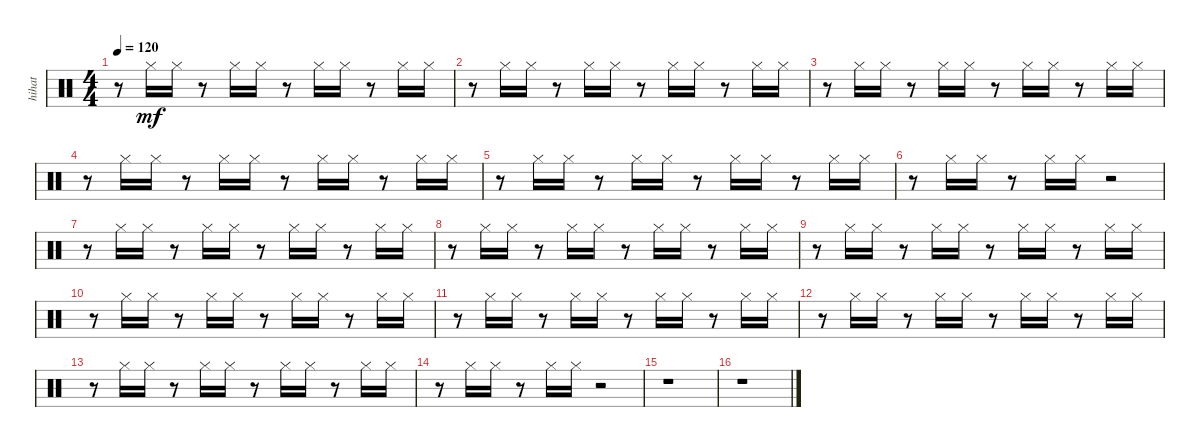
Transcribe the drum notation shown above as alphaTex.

\track ("hihat" "hihat") {instrument percussion}
\staff {score}
\articulation defaults
\ts (4 4)
\tempo 120
\clef neutral
\ks c
r.8{dy mf} "Hi-Hat (closed)".16 "Hi-Hat (closed)".16 r.8 "Hi-Hat (closed)".16 "Hi-Hat (closed)".16 r.8 "Hi-Hat (closed)".16 "Hi-Hat (closed)".16 r.8 "Hi-Hat (closed)".16 "Hi-Hat (closed)".16 |
r.8 "Hi-Hat (closed)".16 "Hi-Hat (closed)".16 r.8 "Hi-Hat (closed)".16 "Hi-Hat (closed)".16 r.8 "Hi-Hat (closed)".16 "Hi-Hat (closed)".16 r.8 "Hi-Hat (closed)".16 "Hi-Hat (closed)".16 |
r.8 "Hi-Hat (closed)".16 "Hi-Hat (closed)".16 r.8 "Hi-Hat (closed)".16 "Hi-Hat (closed)".16 r.8 "Hi-Hat (closed)".16 "Hi-Hat (closed)".16 r.8 "Hi-Hat (closed)".16 "Hi-Hat (closed)".16 |
r.8 "Hi-Hat (closed)".16 "Hi-Hat (closed)".16 r.8 "Hi-Hat (closed)".16 "Hi-Hat (closed)".16 r.8 "Hi-Hat (closed)".16 "Hi-Hat (closed)".16 r.8 "Hi-Hat (closed)".16 "Hi-Hat (closed)".16 |
r.8 "Hi-Hat (closed)".16 "Hi-Hat (closed)".16 r.8 "Hi-Hat (closed)".16 "Hi-Hat (closed)".16 r.8 "Hi-Hat (closed)".16 "Hi-Hat (closed)".16 r.8 "Hi-Hat (closed)".16 "Hi-Hat (closed)".16 |
r.8 "Hi-Hat (closed)".16 "Hi-Hat (closed)".16 r.8 "Hi-Hat (closed)".16 "Hi-Hat (closed)".16 r.2 |
r.8 "Hi-Hat (closed)".16 "Hi-Hat (closed)".16 r.8 "Hi-Hat (closed)".16 "Hi-Hat (closed)".16 r.8 "Hi-Hat (closed)".16 "Hi-Hat (closed)".16 r.8 "Hi-Hat (closed)".16 "Hi-Hat (closed)".16 |
r.8 "Hi-Hat (closed)".16 "Hi-Hat (closed)".16 r.8 "Hi-Hat (closed)".16 "Hi-Hat (closed)".16 r.8 "Hi-Hat (closed)".16 "Hi-Hat (closed)".16 r.8 "Hi-Hat (closed)".16 "Hi-Hat (closed)".16 |
r.8 "Hi-Hat (closed)".16 "Hi-Hat (closed)".16 r.8 "Hi-Hat (closed)".16 "Hi-Hat (closed)".16 r.8 "Hi-Hat (closed)".16 "Hi-Hat (closed)".16 r.8 "Hi-Hat (closed)".16 "Hi-Hat (closed)".16 |
r.8 "Hi-Hat (closed)".16 "Hi-Hat (closed)".16 r.8 "Hi-Hat (closed)".16 "Hi-Hat (closed)".16 r.8 "Hi-Hat (closed)".16 "Hi-Hat (closed)".16 r.8 "Hi-Hat (closed)".16 "Hi-Hat (closed)".16 |
r.8 "Hi-Hat (closed)".16 "Hi-Hat (closed)".16 r.8 "Hi-Hat (closed)".16 "Hi-Hat (closed)".16 r.8 "Hi-Hat (closed)".16 "Hi-Hat (closed)".16 r.8 "Hi-Hat (closed)".16 "Hi-Hat (closed)".16 |
r.8 "Hi-Hat (closed)".16 "Hi-Hat (closed)".16 r.8 "Hi-Hat (closed)".16 "Hi-Hat (closed)".16 r.8 "Hi-Hat (closed)".16 "Hi-Hat (closed)".16 r.8 "Hi-Hat (closed)".16 "Hi-Hat (closed)".16 |
r.8 "Hi-Hat (closed)".16 "Hi-Hat (closed)".16 r.8 "Hi-Hat (closed)".16 "Hi-Hat (closed)".16 r.8 "Hi-Hat (closed)".16 "Hi-Hat (closed)".16 r.8 "Hi-Hat (closed)".16 "Hi-Hat (closed)".16 |
r.8 "Hi-Hat (closed)".16 "Hi-Hat (closed)".16 r.8 "Hi-Hat (closed)".16 "Hi-Hat (closed)".16 r.2 |
r.1 |
r.1
